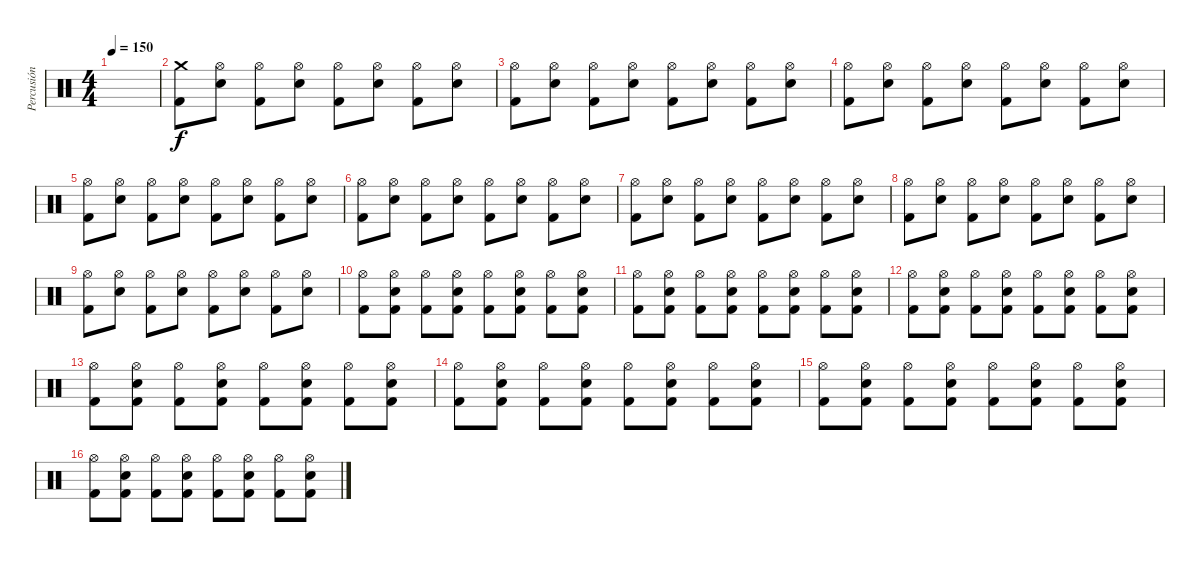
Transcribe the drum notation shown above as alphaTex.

\track ("Percusión" "Percusión") {instrument percussion}
\staff {score}
\articulation defaults
\ts (4 4)
\tempo 150
\clef neutral
\ks c
|
("Crash medium (hit)" "Kick (hit) 2").8 ("Hi-Hat (open)" "Electric Snare (hit)").8 ("Hi-Hat (open)" "Kick (hit) 2").8 ("Hi-Hat (open)" "Electric Snare (hit)").8 ("Hi-Hat (open)" "Kick (hit) 2").8 ("Hi-Hat (open)" "Electric Snare (hit)").8 ("Hi-Hat (open)" "Kick (hit) 2").8 ("Hi-Hat (open)" "Electric Snare (hit)").8 |
("Hi-Hat (open)" "Kick (hit) 2").8 ("Hi-Hat (open)" "Electric Snare (hit)").8 ("Hi-Hat (open)" "Kick (hit) 2").8 ("Hi-Hat (open)" "Electric Snare (hit)").8 ("Hi-Hat (open)" "Kick (hit) 2").8 ("Hi-Hat (open)" "Electric Snare (hit)").8 ("Hi-Hat (open)" "Kick (hit) 2").8 ("Hi-Hat (open)" "Electric Snare (hit)").8 |
("Hi-Hat (open)" "Kick (hit) 2").8 ("Hi-Hat (open)" "Electric Snare (hit)").8 ("Hi-Hat (open)" "Kick (hit) 2").8 ("Hi-Hat (open)" "Electric Snare (hit)").8 ("Hi-Hat (open)" "Kick (hit) 2").8 ("Hi-Hat (open)" "Electric Snare (hit)").8 ("Hi-Hat (open)" "Kick (hit) 2").8 ("Hi-Hat (open)" "Electric Snare (hit)").8 |
("Hi-Hat (open)" "Kick (hit) 2").8 ("Hi-Hat (open)" "Electric Snare (hit)").8 ("Hi-Hat (open)" "Kick (hit) 2").8 ("Hi-Hat (open)" "Electric Snare (hit)").8 ("Hi-Hat (open)" "Kick (hit) 2").8 ("Hi-Hat (open)" "Electric Snare (hit)").8 ("Hi-Hat (open)" "Kick (hit) 2").8 ("Hi-Hat (open)" "Electric Snare (hit)").8 |
("Hi-Hat (open)" "Kick (hit) 2").8 ("Hi-Hat (open)" "Electric Snare (hit)").8 ("Hi-Hat (open)" "Kick (hit) 2").8 ("Hi-Hat (open)" "Electric Snare (hit)").8 ("Hi-Hat (open)" "Kick (hit) 2").8 ("Hi-Hat (open)" "Electric Snare (hit)").8 ("Hi-Hat (open)" "Kick (hit) 2").8 ("Hi-Hat (open)" "Electric Snare (hit)").8 |
("Hi-Hat (open)" "Kick (hit) 2").8 ("Hi-Hat (open)" "Electric Snare (hit)").8 ("Hi-Hat (open)" "Kick (hit) 2").8 ("Hi-Hat (open)" "Electric Snare (hit)").8 ("Hi-Hat (open)" "Kick (hit) 2").8 ("Hi-Hat (open)" "Electric Snare (hit)").8 ("Hi-Hat (open)" "Kick (hit) 2").8 ("Hi-Hat (open)" "Electric Snare (hit)").8 |
("Hi-Hat (open)" "Kick (hit) 2").8 ("Hi-Hat (open)" "Electric Snare (hit)").8 ("Hi-Hat (open)" "Kick (hit) 2").8 ("Hi-Hat (open)" "Electric Snare (hit)").8 ("Hi-Hat (open)" "Kick (hit) 2").8 ("Hi-Hat (open)" "Electric Snare (hit)").8 ("Hi-Hat (open)" "Kick (hit) 2").8 ("Hi-Hat (open)" "Electric Snare (hit)").8 |
("Hi-Hat (open)" "Kick (hit) 2").8 ("Hi-Hat (open)" "Electric Snare (hit)").8 ("Hi-Hat (open)" "Kick (hit) 2").8 ("Hi-Hat (open)" "Electric Snare (hit)").8 ("Hi-Hat (open)" "Kick (hit) 2").8 ("Hi-Hat (open)" "Electric Snare (hit)").8 ("Hi-Hat (open)" "Kick (hit) 2").8 ("Hi-Hat (open)" "Electric Snare (hit)").8 |
("Hi-Hat (open)" "Kick (hit) 2").8 ("Hi-Hat (open)" "Electric Snare (hit)" "Kick (hit) 2").8 ("Hi-Hat (open)" "Kick (hit) 2").8 ("Hi-Hat (open)" "Electric Snare (hit)" "Kick (hit) 2").8 ("Hi-Hat (open)" "Kick (hit) 2").8 ("Hi-Hat (open)" "Electric Snare (hit)" "Kick (hit) 2").8 ("Hi-Hat (open)" "Kick (hit) 2").8 ("Hi-Hat (open)" "Electric Snare (hit)" "Kick (hit) 2").8 |
("Hi-Hat (open)" "Kick (hit) 2").8 ("Hi-Hat (open)" "Electric Snare (hit)" "Kick (hit) 2").8 ("Hi-Hat (open)" "Kick (hit) 2").8 ("Hi-Hat (open)" "Electric Snare (hit)" "Kick (hit) 2").8 ("Hi-Hat (open)" "Kick (hit) 2").8 ("Hi-Hat (open)" "Electric Snare (hit)" "Kick (hit) 2").8 ("Hi-Hat (open)" "Kick (hit) 2").8 ("Hi-Hat (open)" "Electric Snare (hit)" "Kick (hit) 2").8 |
("Hi-Hat (open)" "Kick (hit) 2").8 ("Hi-Hat (open)" "Electric Snare (hit)" "Kick (hit) 2").8 ("Hi-Hat (open)" "Kick (hit) 2").8 ("Hi-Hat (open)" "Electric Snare (hit)" "Kick (hit) 2").8 ("Hi-Hat (open)" "Kick (hit) 2").8 ("Hi-Hat (open)" "Electric Snare (hit)" "Kick (hit) 2").8 ("Hi-Hat (open)" "Kick (hit) 2").8 ("Hi-Hat (open)" "Electric Snare (hit)" "Kick (hit) 2").8 |
("Hi-Hat (open)" "Kick (hit) 2").8 ("Hi-Hat (open)" "Electric Snare (hit)" "Kick (hit) 2").8 ("Hi-Hat (open)" "Kick (hit) 2").8 ("Hi-Hat (open)" "Electric Snare (hit)" "Kick (hit) 2").8 ("Hi-Hat (open)" "Kick (hit) 2").8 ("Hi-Hat (open)" "Electric Snare (hit)" "Kick (hit) 2").8 ("Hi-Hat (open)" "Kick (hit) 2").8 ("Hi-Hat (open)" "Electric Snare (hit)" "Kick (hit) 2").8 |
("Hi-Hat (open)" "Kick (hit) 2").8 ("Hi-Hat (open)" "Electric Snare (hit)" "Kick (hit) 2").8 ("Hi-Hat (open)" "Kick (hit) 2").8 ("Hi-Hat (open)" "Electric Snare (hit)" "Kick (hit) 2").8 ("Hi-Hat (open)" "Kick (hit) 2").8 ("Hi-Hat (open)" "Electric Snare (hit)" "Kick (hit) 2").8 ("Hi-Hat (open)" "Kick (hit) 2").8 ("Hi-Hat (open)" "Electric Snare (hit)" "Kick (hit) 2").8 |
("Hi-Hat (open)" "Kick (hit) 2").8 ("Hi-Hat (open)" "Electric Snare (hit)" "Kick (hit) 2").8 ("Hi-Hat (open)" "Kick (hit) 2").8 ("Hi-Hat (open)" "Electric Snare (hit)" "Kick (hit) 2").8 ("Hi-Hat (open)" "Kick (hit) 2").8 ("Hi-Hat (open)" "Electric Snare (hit)" "Kick (hit) 2").8 ("Hi-Hat (open)" "Kick (hit) 2").8 ("Hi-Hat (open)" "Electric Snare (hit)" "Kick (hit) 2").8 |
("Hi-Hat (open)" "Kick (hit) 2").8 ("Hi-Hat (open)" "Electric Snare (hit)" "Kick (hit) 2").8 ("Hi-Hat (open)" "Kick (hit) 2").8 ("Hi-Hat (open)" "Electric Snare (hit)" "Kick (hit) 2").8 ("Hi-Hat (open)" "Kick (hit) 2").8 ("Hi-Hat (open)" "Electric Snare (hit)" "Kick (hit) 2").8 ("Hi-Hat (open)" "Kick (hit) 2").8 ("Hi-Hat (open)" "Electric Snare (hit)" "Kick (hit) 2").8
